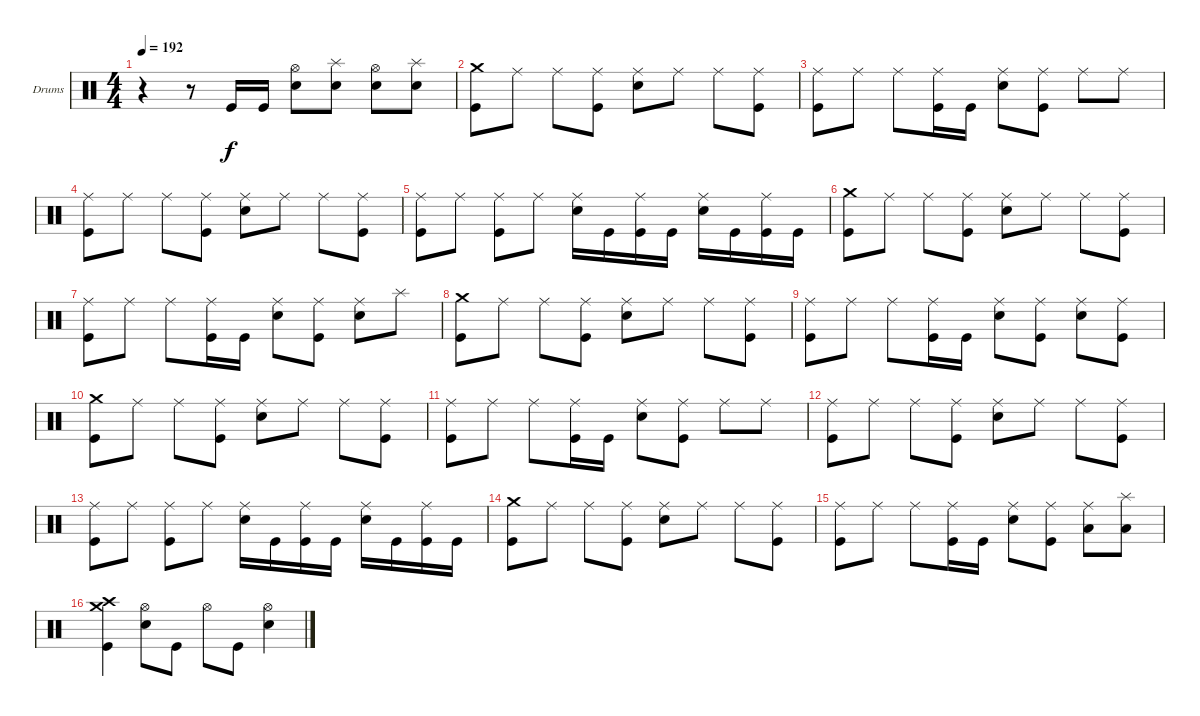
\bracketExtendMode groupsimilarinstruments
\firstSystemTrackNameOrientation horizontal
\otherSystemsTrackNameOrientation horizontal
\track ("Corey Friedlander" "Drums") {instrument percussion}
\staff {score}
\articulation defaults
\ts (4 4)
\tempo 192
\clef neutral
\ks aminor
r.4{dy f} r.8 "Kick (hit)".16 "Kick (hit)".16 ("Snare (hit) 2" "Hi-Hat (open)").8 ("Snare (hit) 2" "Splash (hit)").8 ("Snare (hit) 2" "Hi-Hat (open)").8 ("Snare (hit) 2" "Splash (hit)").8 |
("Crash medium (hit)" "Kick (hit)").8 "Ride (middle)".8 "Ride (middle)".8 ("Ride (middle)" "Kick (hit)").8 ("Ride (middle)" "Snare (hit) 2").8 "Ride (middle)".8 "Ride (middle)".8 ("Ride (middle)" "Kick (hit)").8 |
("Kick (hit)" "Ride (middle)").8 "Ride (middle)".8 "Ride (middle)".8 ("Ride (middle)" "Kick (hit)").16 "Kick (hit)".16 ("Ride (middle)" "Snare (hit) 2").8 ("Ride (middle)" "Kick (hit)").8 "Ride (middle)".8 "Ride (middle)".8 |
("Kick (hit)" "Ride (middle)").8 "Ride (middle)".8 "Ride (middle)".8 ("Ride (middle)" "Kick (hit)").8 ("Ride (middle)" "Snare (hit) 2").8 "Ride (middle)".8 "Ride (middle)".8 ("Ride (middle)" "Kick (hit)").8 |
("Kick (hit)" "Ride (middle)").8 "Ride (middle)".8 ("Ride (middle)" "Kick (hit)").8 "Ride (middle)".8 ("Ride (middle)" "Snare (hit) 2").16 "Kick (hit)".16 ("Kick (hit)" "Ride (middle)").16 "Kick (hit)".16 ("Ride (middle)" "Snare (hit) 2").16 "Kick (hit)".16 ("Kick (hit)" "Ride (middle)").16 "Kick (hit)".16 |
("Crash medium (hit)" "Kick (hit)").8 "Ride (middle)".8 "Ride (middle)".8 ("Ride (middle)" "Kick (hit)").8 ("Ride (middle)" "Snare (hit) 2").8 "Ride (middle)".8 "Ride (middle)".8 ("Ride (middle)" "Kick (hit)").8 |
("Kick (hit)" "Ride (middle)").8 "Ride (middle)".8 "Ride (middle)".8 ("Ride (middle)" "Kick (hit)").16 "Kick (hit)".16 ("Ride (middle)" "Snare (hit) 2").8 ("Ride (middle)" "Kick (hit)").8 ("Ride (middle)" "Snare (hit) 2").8 "Splash (hit)".8 |
("Crash medium (hit)" "Kick (hit)").8 "Ride (middle)".8 "Ride (middle)".8 ("Ride (middle)" "Kick (hit)").8 ("Ride (middle)" "Snare (hit) 2").8 "Ride (middle)".8 "Ride (middle)".8 ("Ride (middle)" "Kick (hit)").8 |
("Kick (hit)" "Ride (middle)").8 "Ride (middle)".8 "Ride (middle)".8 ("Ride (middle)" "Kick (hit)").16 "Kick (hit)".16 ("Ride (middle)" "Snare (hit) 2").8 ("Kick (hit)" "Ride (middle)").8 ("Ride (middle)" "Snare (hit) 2").8 ("Kick (hit)" "Ride (middle)").8 |
("Crash medium (hit)" "Kick (hit)").8 "Ride (middle)".8 "Ride (middle)".8 ("Ride (middle)" "Kick (hit)").8 ("Ride (middle)" "Snare (hit) 2").8 "Ride (middle)".8 "Ride (middle)".8 ("Ride (middle)" "Kick (hit)").8 |
("Kick (hit)" "Ride (middle)").8 "Ride (middle)".8 "Ride (middle)".8 ("Ride (middle)" "Kick (hit)").16 "Kick (hit)".16 ("Ride (middle)" "Snare (hit) 2").8 ("Ride (middle)" "Kick (hit)").8 "Ride (middle)".8 "Ride (middle)".8 |
("Kick (hit)" "Ride (middle)").8 "Ride (middle)".8 "Ride (middle)".8 ("Ride (middle)" "Kick (hit)").8 ("Ride (middle)" "Snare (hit) 2").8 "Ride (middle)".8 "Ride (middle)".8 ("Ride (middle)" "Kick (hit)").8 |
("Kick (hit)" "Ride (middle)").8 "Ride (middle)".8 ("Ride (middle)" "Kick (hit)").8 "Ride (middle)".8 ("Ride (middle)" "Snare (hit) 2").16 "Kick (hit)".16 ("Kick (hit)" "Ride (middle)").16 "Kick (hit)".16 ("Ride (middle)" "Snare (hit) 2").16 "Kick (hit)".16 ("Kick (hit)" "Ride (middle)").16 "Kick (hit)".16 |
("Crash medium (hit)" "Kick (hit)").8 "Ride (middle)".8 "Ride (middle)".8 ("Ride (middle)" "Kick (hit)").8 ("Ride (middle)" "Snare (hit) 2").8 "Ride (middle)".8 "Ride (middle)".8 ("Ride (middle)" "Kick (hit)").8 |
("Kick (hit)" "Ride (middle)").8 "Ride (middle)".8 "Ride (middle)".8 ("Ride (middle)" "Kick (hit)").16 "Kick (hit)".16 ("Ride (middle)" "Snare (hit) 2").8 ("Ride (middle)" "Kick (hit)").8 ("Ride (middle)" "Low Tom (hit)").8 ("Splash (hit)" "Low Tom (hit)").8 |
("Crash medium (hit)" "Crash high (hit)" "Kick (hit)").4 ("Snare (hit) 2" "Hi-Hat (open)").8 "Kick (hit)".8 "Hi-Hat (open)".8 "Kick (hit)".8 ("Snare (hit) 2" "Hi-Hat (open)").4
